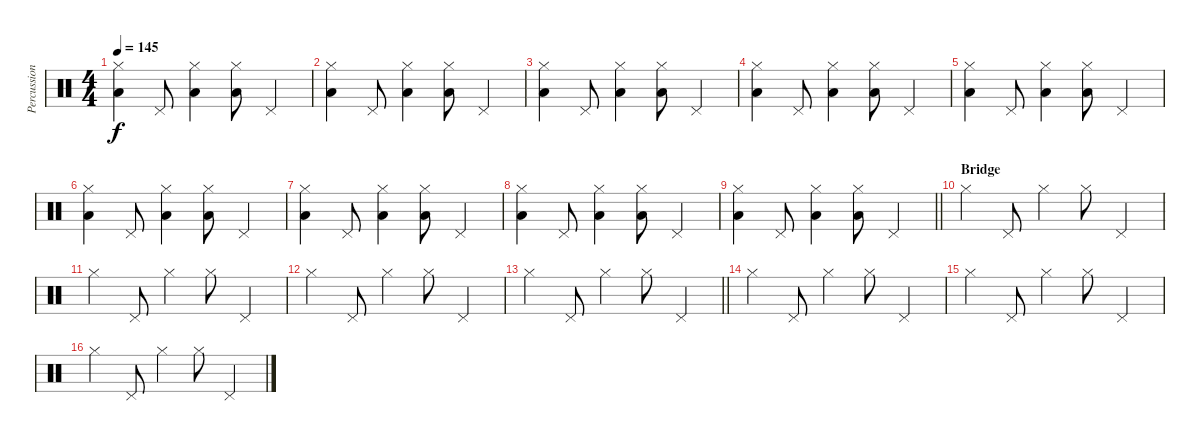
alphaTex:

\track ("Percussion" "Percussion") {instrument percussion}
\staff {score}
\articulation defaults
\ts (4 4)
\tempo 145
\clef neutral
\ks c
("Hi-Hat (closed)" "Low Floor Tom (hit)").4{dy f} "Pedal Hi-Hat (hit)".8 ("Hi-Hat (closed)" "Low Floor Tom (hit)").4 ("Hi-Hat (closed)" "Low Floor Tom (hit)").8 "Pedal Hi-Hat (hit)".4 |
("Hi-Hat (closed)" "Low Floor Tom (hit)").4 "Pedal Hi-Hat (hit)".8 ("Hi-Hat (closed)" "Low Floor Tom (hit)").4 ("Hi-Hat (closed)" "Low Floor Tom (hit)").8 "Pedal Hi-Hat (hit)".4 |
("Hi-Hat (closed)" "Low Floor Tom (hit)").4 "Pedal Hi-Hat (hit)".8 ("Hi-Hat (closed)" "Low Floor Tom (hit)").4 ("Hi-Hat (closed)" "Low Floor Tom (hit)").8 "Pedal Hi-Hat (hit)".4 |
("Hi-Hat (closed)" "Low Floor Tom (hit)").4 "Pedal Hi-Hat (hit)".8 ("Hi-Hat (closed)" "Low Floor Tom (hit)").4 ("Hi-Hat (closed)" "Low Floor Tom (hit)").8 "Pedal Hi-Hat (hit)".4 |
("Hi-Hat (closed)" "Low Floor Tom (hit)").4 "Pedal Hi-Hat (hit)".8 ("Hi-Hat (closed)" "Low Floor Tom (hit)").4 ("Hi-Hat (closed)" "Low Floor Tom (hit)").8 "Pedal Hi-Hat (hit)".4 |
("Hi-Hat (closed)" "Low Floor Tom (hit)").4 "Pedal Hi-Hat (hit)".8 ("Hi-Hat (closed)" "Low Floor Tom (hit)").4 ("Hi-Hat (closed)" "Low Floor Tom (hit)").8 "Pedal Hi-Hat (hit)".4 |
("Hi-Hat (closed)" "Low Floor Tom (hit)").4 "Pedal Hi-Hat (hit)".8 ("Hi-Hat (closed)" "Low Floor Tom (hit)").4 ("Hi-Hat (closed)" "Low Floor Tom (hit)").8 "Pedal Hi-Hat (hit)".4 |
("Hi-Hat (closed)" "Low Floor Tom (hit)").4 "Pedal Hi-Hat (hit)".8 ("Hi-Hat (closed)" "Low Floor Tom (hit)").4 ("Hi-Hat (closed)" "Low Floor Tom (hit)").8 "Pedal Hi-Hat (hit)".4 |
\barLineRight lightlight
("Hi-Hat (closed)" "Low Floor Tom (hit)").4 "Pedal Hi-Hat (hit)".8 ("Hi-Hat (closed)" "Low Floor Tom (hit)").4 ("Hi-Hat (closed)" "Low Floor Tom (hit)").8 "Pedal Hi-Hat (hit)".4 |
\section ("" "Bridge")
"Hi-Hat (closed)".4 "Pedal Hi-Hat (hit)".8 "Hi-Hat (closed)".4 "Hi-Hat (closed)".8 "Pedal Hi-Hat (hit)".4 |
"Hi-Hat (closed)".4 "Pedal Hi-Hat (hit)".8 "Hi-Hat (closed)".4 "Hi-Hat (closed)".8 "Pedal Hi-Hat (hit)".4 |
"Hi-Hat (closed)".4 "Pedal Hi-Hat (hit)".8 "Hi-Hat (closed)".4 "Hi-Hat (closed)".8 "Pedal Hi-Hat (hit)".4 |
\barLineRight lightlight "Hi-Hat (closed)".4 "Pedal Hi-Hat (hit)".8 "Hi-Hat (closed)".4 "Hi-Hat (closed)".8 "Pedal Hi-Hat (hit)".4
|
"Hi-Hat (closed)".4 "Pedal Hi-Hat (hit)".8 "Hi-Hat (closed)".4 "Hi-Hat (closed)".8 "Pedal Hi-Hat (hit)".4 |
"Hi-Hat (closed)".4 "Pedal Hi-Hat (hit)".8 "Hi-Hat (closed)".4 "Hi-Hat (closed)".8 "Pedal Hi-Hat (hit)".4 |
"Hi-Hat (closed)".4 "Pedal Hi-Hat (hit)".8 "Hi-Hat (closed)".4 "Hi-Hat (closed)".8 "Pedal Hi-Hat (hit)".4
